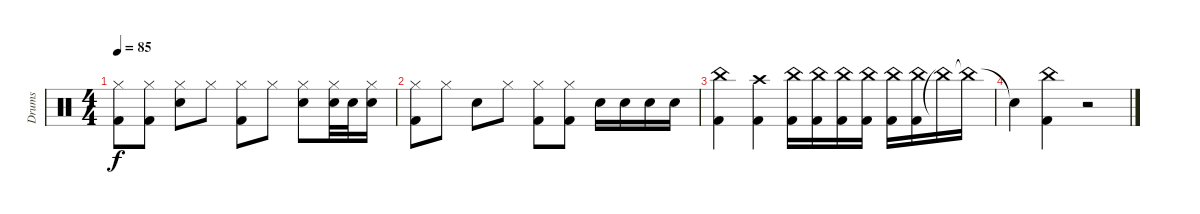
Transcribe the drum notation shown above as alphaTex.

\track ("Drums" "Drums") {instrument percussion}
\staff {score}
\articulation defaults
\ts (4 4)
\tempo 85
\clef neutral
\ks c
("Kick (hit) 2" "Hi-Hat (closed)").8{dy f} ("Kick (hit) 2" "Hi-Hat (closed)").8 ("Snare (hit) 2" "Hi-Hat (closed)").8 "Hi-Hat (closed)".8 ("Kick (hit) 2" "Hi-Hat (closed)").8 "Hi-Hat (closed)".8 ("Snare (hit) 2" "Hi-Hat (closed)").8 ("Snare (hit) 2" "Hi-Hat (closed)").32 "Snare (hit) 2".32 ("Snare (hit) 2" "Hi-Hat (closed)").16 |
("Kick (hit) 2" "Hi-Hat (closed)").8 "Hi-Hat (closed)".8 "Snare (hit) 2".8 "Hi-Hat (closed)".8 ("Kick (hit) 2" "Hi-Hat (closed)").8 ("Kick (hit) 2" "Hi-Hat (closed)").8 "Snare (hit) 2".16 "Snare (hit) 2".16 "Snare (hit) 2".16 "Snare (hit) 2".16 |
("Kick (hit) 2" "China (hit)").4 ("Kick (hit) 2" "Crash high (hit)").4 ("Kick (hit) 2" "China (hit)").16 ("Kick (hit) 2" "China (hit)").16 ("Kick (hit) 2" "China (hit)").16 ("Kick (hit) 2" "China (hit)").16 ("Kick (hit) 2" "China (hit)").16 ("Kick (hit) 2" "China (hit)").16 "China (hit)"{t}.16 "China (hit)"{t}.16 |
"Snare (hit)"{t}.4 ("Kick (hit) 2" "China (hit)").4 r.2
